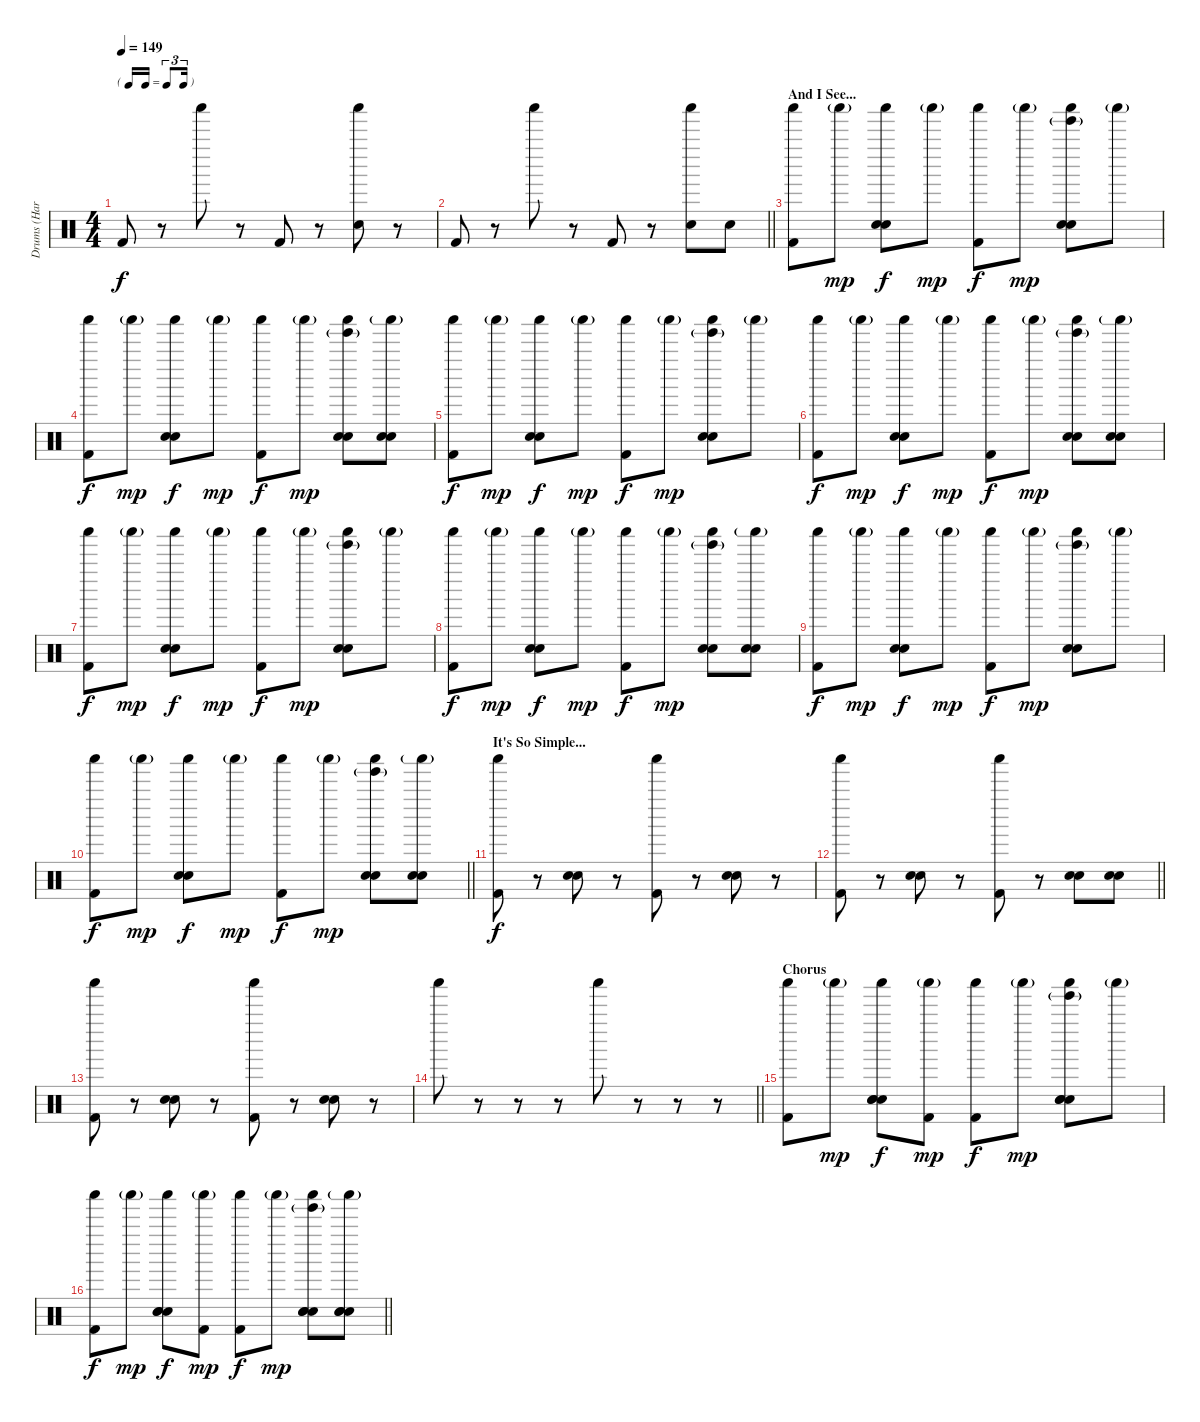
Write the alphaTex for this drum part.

\track ("Drums (Harry)" "Drums (Har") {instrument percussion}
\staff {score}
\articulation defaults
\ts (4 4)
\tf triplet16th
\tempo 149
\clef neutral
\ks c "Kick (hit) 2".8{dy f}
r.8 "Shaker (hit)".8 r.8 "Kick (hit) 2".8 r.8 ("Shaker (hit)" "Hand Clap (hit)").8 r.8 |
\barLineRight lightlight "Kick (hit) 2".8
r.8 "Shaker (hit)".8 r.8 "Kick (hit) 2".8 r.8 ("Shaker (hit)" "Hand Clap (hit)").8 "Hand Clap (hit)".8 |
\section ("" "And I See...")
("Shaker (hit)" "Kick (hit) 2").8 "Shaker (hit)"{g}.8{dy mp} ("Shaker (hit)" "Hand Clap (hit)" "Hand Clap (hit)").8{dy f} "Shaker (hit)"{g}.8{dy mp} ("Shaker (hit)" "Kick (hit) 2").8{dy f} "Shaker (hit)"{g}.8{dy mp} ("Tinkle Bell (hit)"{g} "Shaker (hit)" "Hand Clap (hit)" "Hand Clap (hit)").8 "Shaker (hit)"{g}.8 |
("Shaker (hit)" "Kick (hit) 2").8{dy f} "Shaker (hit)"{g}.8{dy mp} ("Shaker (hit)" "Hand Clap (hit)" "Hand Clap (hit)").8{dy f} "Shaker (hit)"{g}.8{dy mp} ("Shaker (hit)" "Kick (hit) 2").8{dy f} "Shaker (hit)"{g}.8{dy mp} ("Tinkle Bell (hit)"{g} "Shaker (hit)" "Hand Clap (hit)" "Hand Clap (hit)").8 ("Shaker (hit)"{g} "Hand Clap (hit)" "Hand Clap (hit)").8 |
("Shaker (hit)" "Kick (hit) 2").8{dy f} "Shaker (hit)"{g}.8{dy mp} ("Shaker (hit)" "Hand Clap (hit)" "Hand Clap (hit)").8{dy f} "Shaker (hit)"{g}.8{dy mp} ("Shaker (hit)" "Kick (hit) 2").8{dy f} "Shaker (hit)"{g}.8{dy mp} ("Tinkle Bell (hit)"{g} "Shaker (hit)" "Hand Clap (hit)" "Hand Clap (hit)").8 "Shaker (hit)"{g}.8 |
("Shaker (hit)" "Kick (hit) 2").8{dy f} "Shaker (hit)"{g}.8{dy mp} ("Shaker (hit)" "Hand Clap (hit)" "Hand Clap (hit)").8{dy f} "Shaker (hit)"{g}.8{dy mp} ("Shaker (hit)" "Kick (hit) 2").8{dy f} "Shaker (hit)"{g}.8{dy mp} ("Tinkle Bell (hit)"{g} "Shaker (hit)" "Hand Clap (hit)" "Hand Clap (hit)").8 ("Shaker (hit)"{g} "Hand Clap (hit)" "Hand Clap (hit)").8 |
("Shaker (hit)" "Kick (hit) 2").8{dy f} "Shaker (hit)"{g}.8{dy mp} ("Shaker (hit)" "Hand Clap (hit)" "Hand Clap (hit)").8{dy f} "Shaker (hit)"{g}.8{dy mp} ("Shaker (hit)" "Kick (hit) 2").8{dy f} "Shaker (hit)"{g}.8{dy mp} ("Tinkle Bell (hit)"{g} "Shaker (hit)" "Hand Clap (hit)" "Hand Clap (hit)").8 "Shaker (hit)"{g}.8 |
("Shaker (hit)" "Kick (hit) 2").8{dy f} "Shaker (hit)"{g}.8{dy mp} ("Shaker (hit)" "Hand Clap (hit)" "Hand Clap (hit)").8{dy f} "Shaker (hit)"{g}.8{dy mp} ("Shaker (hit)" "Kick (hit) 2").8{dy f} "Shaker (hit)"{g}.8{dy mp} ("Tinkle Bell (hit)"{g} "Shaker (hit)" "Hand Clap (hit)" "Hand Clap (hit)").8 ("Shaker (hit)"{g} "Hand Clap (hit)" "Hand Clap (hit)").8 |
("Shaker (hit)" "Kick (hit) 2").8{dy f} "Shaker (hit)"{g}.8{dy mp} ("Shaker (hit)" "Hand Clap (hit)" "Hand Clap (hit)").8{dy f} "Shaker (hit)"{g}.8{dy mp} ("Shaker (hit)" "Kick (hit) 2").8{dy f} "Shaker (hit)"{g}.8{dy mp} ("Tinkle Bell (hit)"{g} "Shaker (hit)" "Hand Clap (hit)" "Hand Clap (hit)").8 "Shaker (hit)"{g}.8 |
\barLineRight lightlight
("Shaker (hit)" "Kick (hit) 2").8{dy f} "Shaker (hit)"{g}.8{dy mp} ("Shaker (hit)" "Hand Clap (hit)" "Hand Clap (hit)").8{dy f} "Shaker (hit)"{g}.8{dy mp} ("Shaker (hit)" "Kick (hit) 2").8{dy f} "Shaker (hit)"{g}.8{dy mp} ("Tinkle Bell (hit)"{g} "Shaker (hit)" "Hand Clap (hit)" "Hand Clap (hit)").8 ("Shaker (hit)"{g} "Hand Clap (hit)" "Hand Clap (hit)").8 |
\section ("" "It's So Simple...")
("Shaker (hit)" "Kick (hit) 2").8{dy f} r.8 ("Hand Clap (hit)" "Hand Clap (hit)").8 r.8 ("Shaker (hit)" "Kick (hit) 2").8 r.8 ("Hand Clap (hit)" "Hand Clap (hit)").8 r.8 |
\barLineRight lightlight
("Shaker (hit)" "Kick (hit) 2").8 r.8 ("Hand Clap (hit)" "Hand Clap (hit)").8 r.8 ("Shaker (hit)" "Kick (hit) 2").8 r.8 ("Hand Clap (hit)" "Hand Clap (hit)").8 ("Hand Clap (hit)" "Hand Clap (hit)").8 |
("Shaker (hit)" "Kick (hit) 2").8 r.8 ("Hand Clap (hit)" "Hand Clap (hit)").8 r.8 ("Shaker (hit)" "Kick (hit) 2").8 r.8 ("Hand Clap (hit)" "Hand Clap (hit)").8 r.8 |
\barLineRight lightlight "Shaker (hit)".8
r.8 r.8 r.8 "Shaker (hit)".8 r.8 r.8 r.8 |
\section ("" "Chorus")
("Shaker (hit)" "Kick (hit) 2").8 "Shaker (hit)"{g}.8{dy mp} ("Shaker (hit)" "Hand Clap (hit)" "Hand Clap (hit)" "Hand Clap (hit)").8{dy f} ("Shaker (hit)"{g} "Kick (hit) 2").8{dy mp} ("Shaker (hit)" "Kick (hit) 2").8{dy f} "Shaker (hit)"{g}.8{dy mp} ("Tinkle Bell (hit)"{g} "Shaker (hit)" "Hand Clap (hit)" "Hand Clap (hit)" "Hand Clap (hit)").8 "Shaker (hit)"{g}.8 |
\barLineRight lightlight
("Shaker (hit)" "Kick (hit) 2").8{dy f} "Shaker (hit)"{g}.8{dy mp} ("Shaker (hit)" "Hand Clap (hit)" "Hand Clap (hit)" "Hand Clap (hit)").8{dy f} ("Shaker (hit)"{g} "Kick (hit) 2").8{dy mp} ("Shaker (hit)" "Kick (hit) 2").8{dy f} "Shaker (hit)"{g}.8{dy mp} ("Tinkle Bell (hit)"{g} "Shaker (hit)" "Hand Clap (hit)" "Hand Clap (hit)" "Hand Clap (hit)").8 ("Shaker (hit)"{g} "Hand Clap (hit)" "Hand Clap (hit)" "Hand Clap (hit)").8
